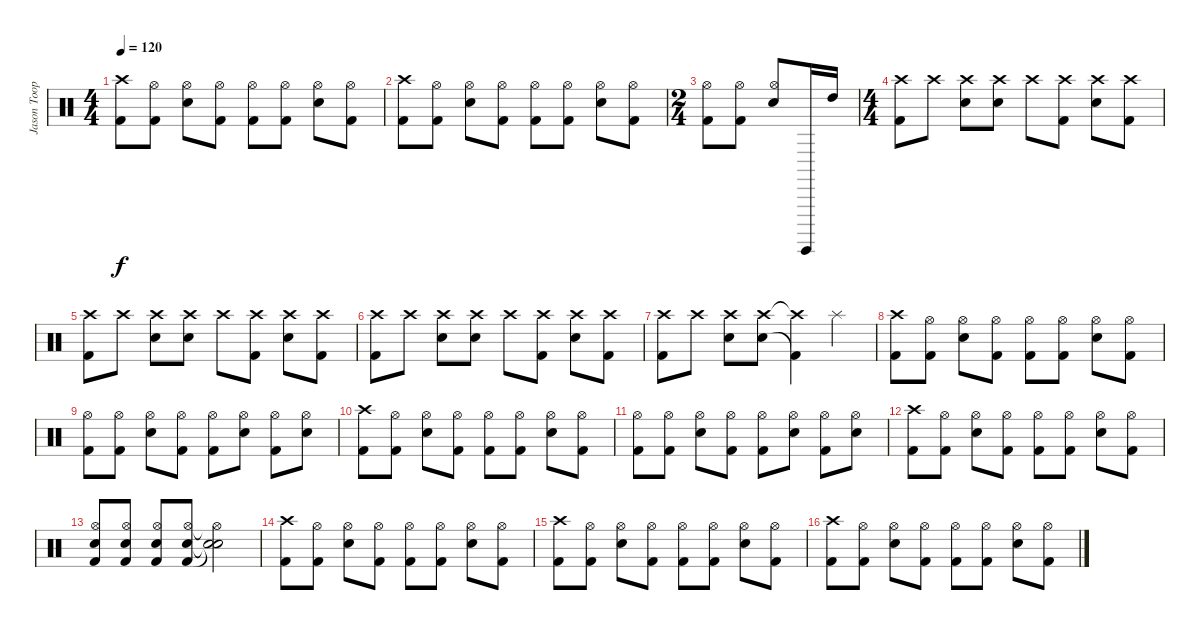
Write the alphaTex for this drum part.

\track ("Jason Toop Cooper" "Jason Toop") {instrument percussion}
\staff {score}
\articulation defaults
\ts (4 4)
\tempo 120
\clef neutral
\ks c
("Crash high (hit)" "Kick (hit) 2").8{dy f} ("Hi-Hat (open)"{x} "Kick (hit) 2").8 ("Hi-Hat (open)" "Electric Snare (hit)").8 ("Hi-Hat (open)"{x} "Kick (hit) 2").8 ("Hi-Hat (open)" "Kick (hit) 2").8 ("Hi-Hat (open)"{x} "Kick (hit) 2").8 ("Hi-Hat (open)" "Electric Snare (hit)").8 ("Hi-Hat (open)"{x} "Kick (hit) 2").8 |
("Crash high (hit)" "Kick (hit) 2").8 ("Hi-Hat (open)"{x} "Kick (hit) 2").8 ("Hi-Hat (open)" "Electric Snare (hit)").8 ("Hi-Hat (open)"{x} "Kick (hit) 2").8 ("Hi-Hat (open)" "Kick (hit) 2").8 ("Hi-Hat (open)"{x} "Kick (hit) 2").8 ("Hi-Hat (open)" "Electric Snare (hit)").8 ("Hi-Hat (open)"{x} "Kick (hit) 2").8 |
\ts (2 4)
("Hi-Hat (open)" "Kick (hit) 2").8 ("Hi-Hat (open)"{x} "Kick (hit) 2").8 ("Hi-Hat (open)" "Electric Snare (hit)").8 "Surdo (hit)".16 "High Tom (hit)".16 |
\ts (4 4)
("Crash high (hit)" "Kick (hit) 2").8 "Crash high (hit)".8 ("Crash high (hit)" "Electric Snare (hit)").8 ("Crash high (hit)" "Electric Snare (hit)").8 "Crash high (hit)".8 ("Crash high (hit)" "Kick (hit) 2").8 ("Crash high (hit)" "Electric Snare (hit)").8 ("Crash high (hit)" "Kick (hit) 2").8 |
("Crash high (hit)" "Kick (hit) 2").8 "Crash high (hit)".8 ("Crash high (hit)" "Electric Snare (hit)").8 ("Crash high (hit)" "Electric Snare (hit)").8 "Crash high (hit)".8 ("Crash high (hit)" "Kick (hit) 2").8 ("Crash high (hit)" "Electric Snare (hit)").8 ("Crash high (hit)" "Kick (hit) 2").8 |
("Crash high (hit)" "Kick (hit) 2").8 "Crash high (hit)".8 ("Crash high (hit)" "Electric Snare (hit)").8 ("Crash high (hit)" "Electric Snare (hit)").8 "Crash high (hit)".8 ("Crash high (hit)" "Kick (hit) 2").8 ("Crash high (hit)" "Electric Snare (hit)").8 ("Crash high (hit)" "Kick (hit) 2").8 |
("Crash high (hit)" "Kick (hit) 2").8 "Crash high (hit)".8 ("Crash high (hit)" "Electric Snare (hit)").8 ("Crash high (hit)" "Electric Snare (hit)").8 ("Crash high (hit)"{t} "Kick (hit) 2"{t}).4 "Splash (hit)".4 |
("Crash high (hit)" "Kick (hit) 2").8 ("Hi-Hat (open)"{x} "Kick (hit) 2").8 ("Hi-Hat (open)" "Electric Snare (hit)").8 ("Hi-Hat (open)"{x} "Kick (hit) 2").8 ("Hi-Hat (open)" "Kick (hit) 2").8 ("Hi-Hat (open)"{x} "Kick (hit) 2").8 ("Hi-Hat (open)" "Electric Snare (hit)").8 ("Hi-Hat (open)"{x} "Kick (hit) 2").8 |
("Hi-Hat (open)" "Kick (hit) 2").8 ("Hi-Hat (open)"{x} "Kick (hit) 2").8 ("Hi-Hat (open)" "Electric Snare (hit)").8 ("Hi-Hat (open)"{x} "Kick (hit) 2").8 ("Hi-Hat (open)" "Kick (hit) 2").8 ("Hi-Hat (open)" "Electric Snare (hit)").8 ("Hi-Hat (open)"{x} "Kick (hit) 2").8 ("Hi-Hat (open)" "Electric Snare (hit)").8 |
("Crash high (hit)" "Kick (hit) 2").8 ("Hi-Hat (open)"{x} "Kick (hit) 2").8 ("Hi-Hat (open)" "Electric Snare (hit)").8 ("Hi-Hat (open)"{x} "Kick (hit) 2").8 ("Hi-Hat (open)" "Kick (hit) 2").8 ("Hi-Hat (open)"{x} "Kick (hit) 2").8 ("Hi-Hat (open)" "Electric Snare (hit)").8 ("Hi-Hat (open)"{x} "Kick (hit) 2").8 |
("Hi-Hat (open)" "Kick (hit) 2").8 ("Hi-Hat (open)"{x} "Kick (hit) 2").8 ("Hi-Hat (open)" "Electric Snare (hit)").8 ("Hi-Hat (open)"{x} "Kick (hit) 2").8 ("Hi-Hat (open)" "Kick (hit) 2").8 ("Hi-Hat (open)" "Electric Snare (hit)").8 ("Hi-Hat (open)"{x} "Kick (hit) 2").8 ("Hi-Hat (open)" "Electric Snare (hit)").8 |
("Crash high (hit)" "Kick (hit) 2").8 ("Hi-Hat (open)"{x} "Kick (hit) 2").8 ("Hi-Hat (open)" "Electric Snare (hit)").8 ("Hi-Hat (open)"{x} "Kick (hit) 2").8 ("Hi-Hat (open)" "Kick (hit) 2").8 ("Hi-Hat (open)"{x} "Kick (hit) 2").8 ("Hi-Hat (open)" "Electric Snare (hit)").8 ("Hi-Hat (open)"{x} "Kick (hit) 2").8 |
("Hi-Hat (open)" "Kick (hit) 2" "Electric Snare (hit)").8 ("Hi-Hat (open)" "Kick (hit) 2" "Electric Snare (hit)").8 ("Hi-Hat (open)" "Kick (hit) 2" "Electric Snare (hit)").8 ("Hi-Hat (open)" "Kick (hit) 2" "Electric Snare (hit)").8 ("Hi-Hat (open)"{t} "Electric Snare (hit)"{t} "Snare (hit)"{t}).2 |
("Crash high (hit)" "Kick (hit) 2").8 ("Hi-Hat (open)"{x} "Kick (hit) 2").8 ("Hi-Hat (open)" "Electric Snare (hit)").8 ("Hi-Hat (open)"{x} "Kick (hit) 2").8 ("Hi-Hat (open)" "Kick (hit) 2").8 ("Hi-Hat (open)"{x} "Kick (hit) 2").8 ("Hi-Hat (open)" "Electric Snare (hit)").8 ("Hi-Hat (open)"{x} "Kick (hit) 2").8 |
("Crash high (hit)" "Kick (hit) 2").8 ("Hi-Hat (open)"{x} "Kick (hit) 2").8 ("Hi-Hat (open)" "Electric Snare (hit)").8 ("Hi-Hat (open)"{x} "Kick (hit) 2").8 ("Hi-Hat (open)" "Kick (hit) 2").8 ("Hi-Hat (open)"{x} "Kick (hit) 2").8 ("Hi-Hat (open)" "Electric Snare (hit)").8 ("Hi-Hat (open)"{x} "Kick (hit) 2").8 |
("Crash high (hit)" "Kick (hit) 2").8 ("Hi-Hat (open)"{x} "Kick (hit) 2").8 ("Hi-Hat (open)" "Electric Snare (hit)").8 ("Hi-Hat (open)"{x} "Kick (hit) 2").8 ("Hi-Hat (open)" "Kick (hit) 2").8 ("Hi-Hat (open)"{x} "Kick (hit) 2").8 ("Hi-Hat (open)" "Electric Snare (hit)").8 ("Hi-Hat (open)"{x} "Kick (hit) 2").8
